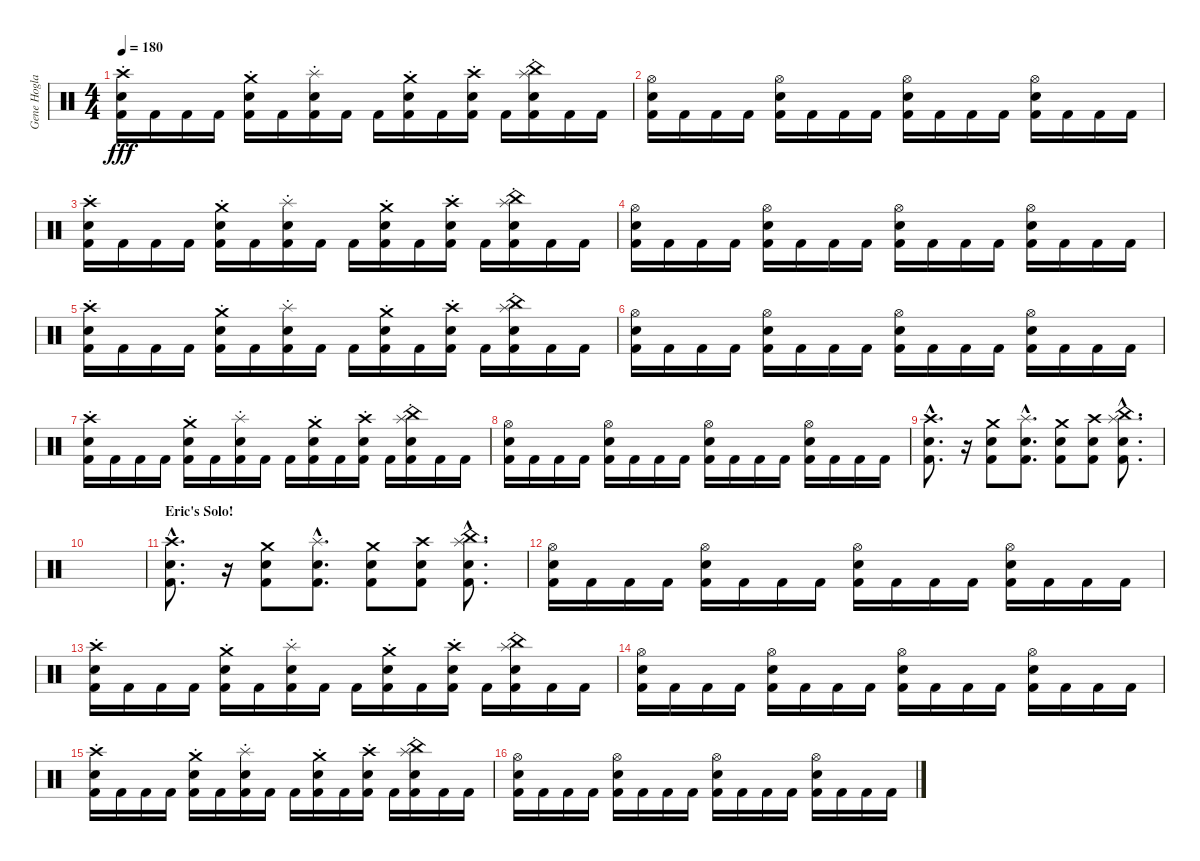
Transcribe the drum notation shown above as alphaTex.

\track ("Gene Hoglan" "Gene Hogla") {instrument percussion}
\staff {score}
\articulation defaults
\ts (4 4)
\tempo 180
\clef neutral
\ks c
("Crash high (hit)"{st} "Snare (hit) 2" "Kick (hit) 2").16{dy fff} "Kick (hit) 2".16 "Kick (hit) 2".16 "Kick (hit) 2".16 ("Crash medium (hit)"{st} "Snare (hit) 2" "Kick (hit) 2").16 "Kick (hit) 2".16 ("Splash (hit)"{st} "Snare (hit) 2" "Kick (hit) 2").16 "Kick (hit) 2".16 "Kick (hit) 2".16 ("Crash medium (hit)"{st} "Snare (hit) 2" "Kick (hit) 2").16 "Kick (hit) 2".16 ("Crash high (hit)"{st} "Snare (hit) 2" "Kick (hit) 2").16 "Kick (hit) 2".16 ("China (hit)"{st} "Splash (hit)"{st} "Snare (hit) 2" "Kick (hit) 2").16 "Kick (hit) 2".16 "Kick (hit) 2".16 |
("Hi-Hat (open)" "Snare (hit) 2" "Kick (hit) 2").16 "Kick (hit) 2".16 "Kick (hit) 2".16 "Kick (hit) 2".16 ("Hi-Hat (open)" "Snare (hit) 2" "Kick (hit) 2").16 "Kick (hit) 2".16 "Kick (hit) 2".16 "Kick (hit) 2".16 ("Hi-Hat (open)" "Snare (hit) 2" "Kick (hit) 2").16 "Kick (hit) 2".16 "Kick (hit) 2".16 "Kick (hit) 2".16 ("Hi-Hat (open)" "Snare (hit) 2" "Kick (hit) 2").16 "Kick (hit) 2".16 "Kick (hit) 2".16 "Kick (hit) 2".16 |
("Crash high (hit)"{st} "Snare (hit) 2" "Kick (hit) 2").16 "Kick (hit) 2".16 "Kick (hit) 2".16 "Kick (hit) 2".16 ("Crash medium (hit)"{st} "Snare (hit) 2" "Kick (hit) 2").16 "Kick (hit) 2".16 ("Splash (hit)"{st} "Snare (hit) 2" "Kick (hit) 2").16 "Kick (hit) 2".16 "Kick (hit) 2".16 ("Crash medium (hit)"{st} "Snare (hit) 2" "Kick (hit) 2").16 "Kick (hit) 2".16 ("Crash high (hit)"{st} "Snare (hit) 2" "Kick (hit) 2").16 "Kick (hit) 2".16 ("China (hit)"{st} "Splash (hit)"{st} "Snare (hit) 2" "Kick (hit) 2").16 "Kick (hit) 2".16 "Kick (hit) 2".16 |
("Hi-Hat (open)" "Snare (hit) 2" "Kick (hit) 2").16 "Kick (hit) 2".16 "Kick (hit) 2".16 "Kick (hit) 2".16 ("Hi-Hat (open)" "Snare (hit) 2" "Kick (hit) 2").16 "Kick (hit) 2".16 "Kick (hit) 2".16 "Kick (hit) 2".16 ("Hi-Hat (open)" "Snare (hit) 2" "Kick (hit) 2").16 "Kick (hit) 2".16 "Kick (hit) 2".16 "Kick (hit) 2".16 ("Hi-Hat (open)" "Snare (hit) 2" "Kick (hit) 2").16 "Kick (hit) 2".16 "Kick (hit) 2".16 "Kick (hit) 2".16 |
("Crash high (hit)"{st} "Snare (hit) 2" "Kick (hit) 2").16 "Kick (hit) 2".16 "Kick (hit) 2".16 "Kick (hit) 2".16 ("Crash medium (hit)"{st} "Snare (hit) 2" "Kick (hit) 2").16 "Kick (hit) 2".16 ("Splash (hit)"{st} "Snare (hit) 2" "Kick (hit) 2").16 "Kick (hit) 2".16 "Kick (hit) 2".16 ("Crash medium (hit)"{st} "Snare (hit) 2" "Kick (hit) 2").16 "Kick (hit) 2".16 ("Crash high (hit)"{st} "Snare (hit) 2" "Kick (hit) 2").16 "Kick (hit) 2".16 ("China (hit)"{st} "Splash (hit)"{st} "Snare (hit) 2" "Kick (hit) 2").16 "Kick (hit) 2".16 "Kick (hit) 2".16 |
("Hi-Hat (open)" "Snare (hit) 2" "Kick (hit) 2").16 "Kick (hit) 2".16 "Kick (hit) 2".16 "Kick (hit) 2".16 ("Hi-Hat (open)" "Snare (hit) 2" "Kick (hit) 2").16 "Kick (hit) 2".16 "Kick (hit) 2".16 "Kick (hit) 2".16 ("Hi-Hat (open)" "Snare (hit) 2" "Kick (hit) 2").16 "Kick (hit) 2".16 "Kick (hit) 2".16 "Kick (hit) 2".16 ("Hi-Hat (open)" "Snare (hit) 2" "Kick (hit) 2").16 "Kick (hit) 2".16 "Kick (hit) 2".16 "Kick (hit) 2".16 |
("Crash high (hit)"{st} "Snare (hit) 2" "Kick (hit) 2").16 "Kick (hit) 2".16 "Kick (hit) 2".16 "Kick (hit) 2".16 ("Crash medium (hit)"{st} "Snare (hit) 2" "Kick (hit) 2").16 "Kick (hit) 2".16 ("Splash (hit)"{st} "Snare (hit) 2" "Kick (hit) 2").16 "Kick (hit) 2".16 "Kick (hit) 2".16 ("Crash medium (hit)"{st} "Snare (hit) 2" "Kick (hit) 2").16 "Kick (hit) 2".16 ("Crash high (hit)"{st} "Snare (hit) 2" "Kick (hit) 2").16 "Kick (hit) 2".16 ("China (hit)"{st} "Splash (hit)"{st} "Snare (hit) 2" "Kick (hit) 2").16 "Kick (hit) 2".16 "Kick (hit) 2".16 |
("Hi-Hat (open)" "Snare (hit) 2" "Kick (hit) 2").16 "Kick (hit) 2".16 "Kick (hit) 2".16 "Kick (hit) 2".16 ("Hi-Hat (open)" "Snare (hit) 2" "Kick (hit) 2").16 "Kick (hit) 2".16 "Kick (hit) 2".16 "Kick (hit) 2".16 ("Hi-Hat (open)" "Snare (hit) 2" "Kick (hit) 2").16 "Kick (hit) 2".16 "Kick (hit) 2".16 "Kick (hit) 2".16 ("Hi-Hat (open)" "Snare (hit) 2" "Kick (hit) 2").16 "Kick (hit) 2".16 "Kick (hit) 2".16 "Kick (hit) 2".16 |
("Crash high (hit)"{hac} "Snare (hit) 2"{hac} "Kick (hit) 2"{hac}).8{d} r.16 ("Crash medium (hit)" "Snare (hit) 2" "Kick (hit) 2").8 ("Splash (hit)"{hac} "Snare (hit) 2"{hac} "Kick (hit) 2"{hac}).8{d} ("Crash medium (hit)" "Snare (hit) 2" "Kick (hit) 2").8 ("Crash high (hit)" "Snare (hit) 2" "Kick (hit) 2").8 ("China (hit)"{hac} "Splash (hit)"{hac} "Snare (hit) 2"{hac} "Kick (hit) 2"{hac}).8{d} |
|
\section ("" "Eric's Solo!")
("Crash high (hit)"{hac} "Snare (hit) 2"{hac} "Kick (hit) 2"{hac}).8{d} r.16 ("Crash medium (hit)" "Snare (hit) 2" "Kick (hit) 2").8 ("Splash (hit)"{hac} "Snare (hit) 2"{hac} "Kick (hit) 2"{hac}).8{d} ("Crash medium (hit)" "Snare (hit) 2" "Kick (hit) 2").8 ("Crash high (hit)" "Snare (hit) 2" "Kick (hit) 2").8 ("China (hit)"{hac} "Splash (hit)"{hac} "Snare (hit) 2"{hac} "Kick (hit) 2"{hac}).8{d} |
("Hi-Hat (open)" "Snare (hit) 2" "Kick (hit) 2").16 "Kick (hit) 2".16 "Kick (hit) 2".16 "Kick (hit) 2".16 ("Hi-Hat (open)" "Snare (hit) 2" "Kick (hit) 2").16 "Kick (hit) 2".16 "Kick (hit) 2".16 "Kick (hit) 2".16 ("Hi-Hat (open)" "Snare (hit) 2" "Kick (hit) 2").16 "Kick (hit) 2".16 "Kick (hit) 2".16 "Kick (hit) 2".16 ("Hi-Hat (open)" "Snare (hit) 2" "Kick (hit) 2").16 "Kick (hit) 2".16 "Kick (hit) 2".16 "Kick (hit) 2".16 |
("Crash high (hit)"{st} "Snare (hit) 2" "Kick (hit) 2").16 "Kick (hit) 2".16 "Kick (hit) 2".16 "Kick (hit) 2".16 ("Crash medium (hit)"{st} "Snare (hit) 2" "Kick (hit) 2").16 "Kick (hit) 2".16 ("Splash (hit)"{st} "Snare (hit) 2" "Kick (hit) 2").16 "Kick (hit) 2".16 "Kick (hit) 2".16 ("Crash medium (hit)"{st} "Snare (hit) 2" "Kick (hit) 2").16 "Kick (hit) 2".16 ("Crash high (hit)"{st} "Snare (hit) 2" "Kick (hit) 2").16 "Kick (hit) 2".16 ("China (hit)"{st} "Splash (hit)"{st} "Snare (hit) 2" "Kick (hit) 2").16 "Kick (hit) 2".16 "Kick (hit) 2".16 |
("Hi-Hat (open)" "Snare (hit) 2" "Kick (hit) 2").16 "Kick (hit) 2".16 "Kick (hit) 2".16 "Kick (hit) 2".16 ("Hi-Hat (open)" "Snare (hit) 2" "Kick (hit) 2").16 "Kick (hit) 2".16 "Kick (hit) 2".16 "Kick (hit) 2".16 ("Hi-Hat (open)" "Snare (hit) 2" "Kick (hit) 2").16 "Kick (hit) 2".16 "Kick (hit) 2".16 "Kick (hit) 2".16 ("Hi-Hat (open)" "Snare (hit) 2" "Kick (hit) 2").16 "Kick (hit) 2".16 "Kick (hit) 2".16 "Kick (hit) 2".16 |
("Crash high (hit)"{st} "Snare (hit) 2" "Kick (hit) 2").16 "Kick (hit) 2".16 "Kick (hit) 2".16 "Kick (hit) 2".16 ("Crash medium (hit)"{st} "Snare (hit) 2" "Kick (hit) 2").16 "Kick (hit) 2".16 ("Splash (hit)"{st} "Snare (hit) 2" "Kick (hit) 2").16 "Kick (hit) 2".16 "Kick (hit) 2".16 ("Crash medium (hit)"{st} "Snare (hit) 2" "Kick (hit) 2").16 "Kick (hit) 2".16 ("Crash high (hit)"{st} "Snare (hit) 2" "Kick (hit) 2").16 "Kick (hit) 2".16 ("China (hit)"{st} "Splash (hit)"{st} "Snare (hit) 2" "Kick (hit) 2").16 "Kick (hit) 2".16 "Kick (hit) 2".16 |
("Hi-Hat (open)" "Snare (hit) 2" "Kick (hit) 2").16 "Kick (hit) 2".16 "Kick (hit) 2".16 "Kick (hit) 2".16 ("Hi-Hat (open)" "Snare (hit) 2" "Kick (hit) 2").16 "Kick (hit) 2".16 "Kick (hit) 2".16 "Kick (hit) 2".16 ("Hi-Hat (open)" "Snare (hit) 2" "Kick (hit) 2").16 "Kick (hit) 2".16 "Kick (hit) 2".16 "Kick (hit) 2".16 ("Hi-Hat (open)" "Snare (hit) 2" "Kick (hit) 2").16 "Kick (hit) 2".16 "Kick (hit) 2".16 "Kick (hit) 2".16
